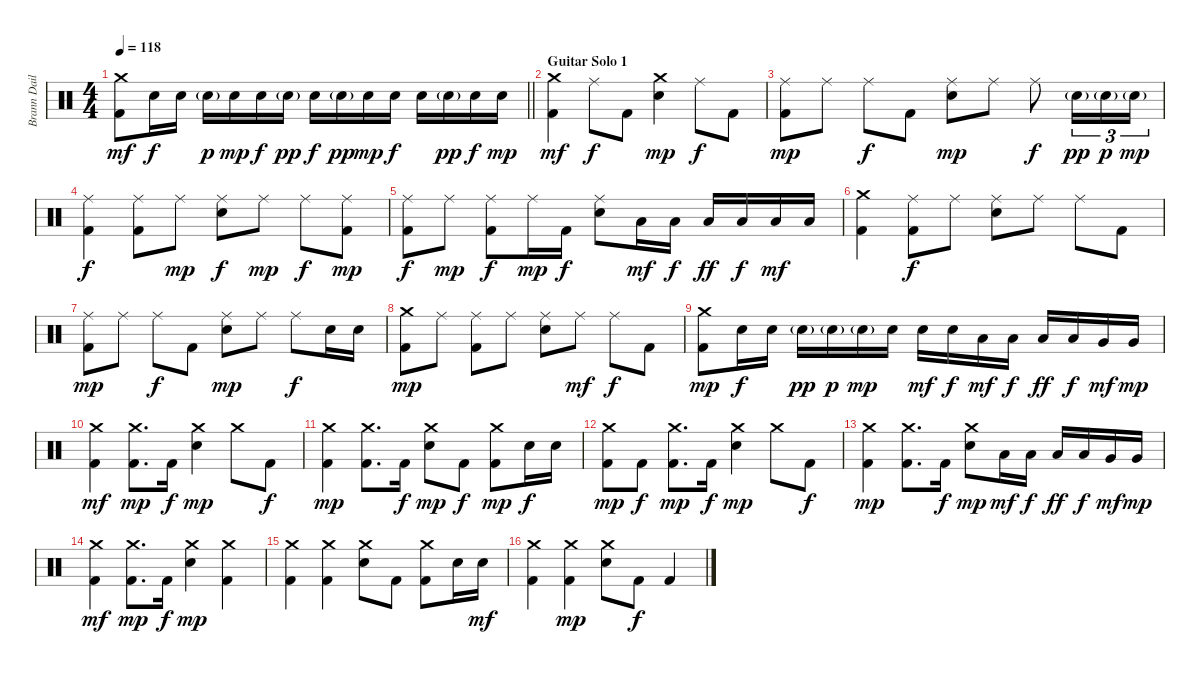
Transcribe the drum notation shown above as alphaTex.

\track ("Brann Dailor - Drums" "Brann Dail") {instrument percussion}
\staff {score}
\articulation defaults
\ts (4 4)
\tempo 118
\clef neutral
\barLineRight lightlight
\ks c
("Crash medium (hit)" "Kick (hit) 2").8{dy mf} "Electric Snare (hit)".16{dy f} "Electric Snare (hit)".16 "Electric Snare (hit)"{g}.16{dy p} "Electric Snare (hit)".16{dy mp} "Electric Snare (hit)".16{dy f} "Electric Snare (hit)"{g}.16{dy pp} "Electric Snare (hit)".16{dy f} "Electric Snare (hit)"{g}.16{dy pp} "Electric Snare (hit)".16{dy mp} "Electric Snare (hit)".16{dy f} "Electric Snare (hit)".16 "Electric Snare (hit)"{g}.16{dy pp} "Electric Snare (hit)".16{dy f} "Electric Snare (hit)".16{dy mp} |
\section ("" "Guitar Solo 1")
("Crash medium (hit)" "Kick (hit) 2").4{dy mf} "Ride (middle)".8{dy f} "Kick (hit) 2".8 ("Crash medium (hit)" "Electric Snare (hit)").4{dy mp} "Ride (middle)".8{dy f} "Kick (hit) 2".8 |
("Ride (middle)" "Kick (hit) 2").8{dy mp} "Ride (middle)".8 "Ride (middle)".8{dy f} "Kick (hit) 2".8 ("Ride (middle)" "Electric Snare (hit)").8{dy mp} "Ride (middle)".8 "Ride (middle)".8{dy f} "Electric Snare (hit)"{g}.16{tu (3 2) dy pp} "Electric Snare (hit)"{g}.16{tu (3 2) dy p} "Electric Snare (hit)"{g}.16{tu (3 2) dy mp} |
("Ride (middle)" "Kick (hit) 2").4{dy f} ("Ride (middle)" "Kick (hit) 2").8 "Ride (middle)".8{dy mp} ("Ride (middle)" "Electric Snare (hit)").8{dy f} "Ride (middle)".8{dy mp} "Ride (middle)".8{dy f} ("Ride (middle)" "Kick (hit) 2").8{dy mp} |
("Ride (middle)" "Kick (hit) 2").8{dy f} "Ride (middle)".8{dy mp} ("Ride (middle)" "Kick (hit) 2").8{dy f} "Ride (middle)".16{dy mp} "Kick (hit) 2".16{dy f} ("Ride (middle)" "Electric Snare (hit)").8 "Low Tom (hit)".16{dy mf} "Low Tom (hit)".16{dy f} "Low Tom (hit)".16{dy ff} "Low Tom (hit)".16{dy f} "Low Tom (hit)".16{dy mf} "Low Tom (hit)".16 |
("Crash medium (hit)" "Kick (hit) 2").4 ("Ride (middle)" "Kick (hit) 2").8{dy f} "Ride (middle)".8 ("Ride (middle)" "Electric Snare (hit)").8 "Ride (middle)".8 "Ride (middle)".8 "Kick (hit) 2".8 |
("Ride (middle)" "Kick (hit) 2").8{dy mp} "Ride (middle)".8 "Ride (middle)".8{dy f} "Kick (hit) 2".8 ("Ride (middle)" "Electric Snare (hit)").8{dy mp} "Ride (middle)".8 "Ride (middle)".8{dy f} "Electric Snare (hit)".16 "Electric Snare (hit)".16 |
("Crash medium (hit)" "Kick (hit) 2").8{dy mp} "Ride (middle)".8 ("Ride (middle)" "Kick (hit) 2").8 "Ride (middle)".8 ("Ride (middle)" "Electric Snare (hit)").8 "Ride (middle)".8{dy mf} "Ride (middle)".8{dy f} "Kick (hit) 2".8 |
("Crash medium (hit)" "Kick (hit) 2").8{dy mp} "Electric Snare (hit)".16{dy f} "Electric Snare (hit)".16 "Electric Snare (hit)"{g}.16{dy pp} "Electric Snare (hit)"{g}.16{dy p} "Electric Snare (hit)"{g}.16{dy mp} "Electric Snare (hit)".16 "Electric Snare (hit)".16{dy mf} "Electric Snare (hit)".16{dy f} "Low Tom (hit)".16{dy mf} "Low Tom (hit)".16{dy f} "Low Tom (hit)".16{dy ff} "Low Tom (hit)".16{dy f} "Very Low Tom (hit)".16{dy mf} "Very Low Tom (hit)".16{dy mp} |
("Crash medium (hit)" "Kick (hit) 2").4{dy mf} ("Crash medium (hit)" "Kick (hit) 2").8{d dy mp} "Kick (hit) 2".16{dy f} ("Crash medium (hit)" "Electric Snare (hit)").4{dy mp} "Crash medium (hit)".8 "Kick (hit) 2".8{dy f} |
("Crash medium (hit)" "Kick (hit) 2").4{dy mp} ("Crash medium (hit)" "Kick (hit) 2").8{d} "Kick (hit) 2".16{dy f} ("Crash medium (hit)" "Electric Snare (hit)").8{dy mp} "Kick (hit) 2".8{dy f} ("Crash medium (hit)" "Kick (hit) 2").8{dy mp} "Electric Snare (hit)".16{dy f} "Electric Snare (hit)".16 |
("Crash medium (hit)" "Kick (hit) 2").8{dy mp} "Kick (hit) 2".8{dy f} ("Crash medium (hit)" "Kick (hit) 2").8{d dy mp} "Kick (hit) 2".16{dy f} ("Crash medium (hit)" "Electric Snare (hit)").4{dy mp} "Crash medium (hit)".8 "Kick (hit) 2".8{dy f} |
("Crash medium (hit)" "Kick (hit) 2").4{dy mp} ("Crash medium (hit)" "Kick (hit) 2").8{d} "Kick (hit) 2".16{dy f} ("Crash medium (hit)" "Electric Snare (hit)").8{dy mp} "Low Tom (hit)".16{dy mf} "Low Tom (hit)".16{dy f} "Low Tom (hit)".16{dy ff} "Low Tom (hit)".16{dy f} "Very Low Tom (hit)".16{dy mf} "Very Low Tom (hit)".16{dy mp} |
("Crash medium (hit)" "Kick (hit) 2").4{dy mf} ("Crash medium (hit)" "Kick (hit) 2").8{d dy mp} "Kick (hit) 2".16{dy f} ("Crash medium (hit)" "Electric Snare (hit)").4{dy mp} ("Crash medium (hit)" "Kick (hit) 2").4 |
("Crash medium (hit)" "Kick (hit) 2").4 ("Crash medium (hit)" "Kick (hit) 2").4 ("Crash medium (hit)" "Electric Snare (hit)").8 "Kick (hit) 2".8 ("Crash medium (hit)" "Kick (hit) 2").8 "Electric Snare (hit)".16 "Electric Snare (hit)".16{dy mf} |
("Crash medium (hit)" "Kick (hit) 2").4 ("Crash medium (hit)" "Kick (hit) 2").4{dy mp} ("Crash medium (hit)" "Electric Snare (hit)").8 "Kick (hit) 2".8{dy f} "Kick (hit) 2".4
